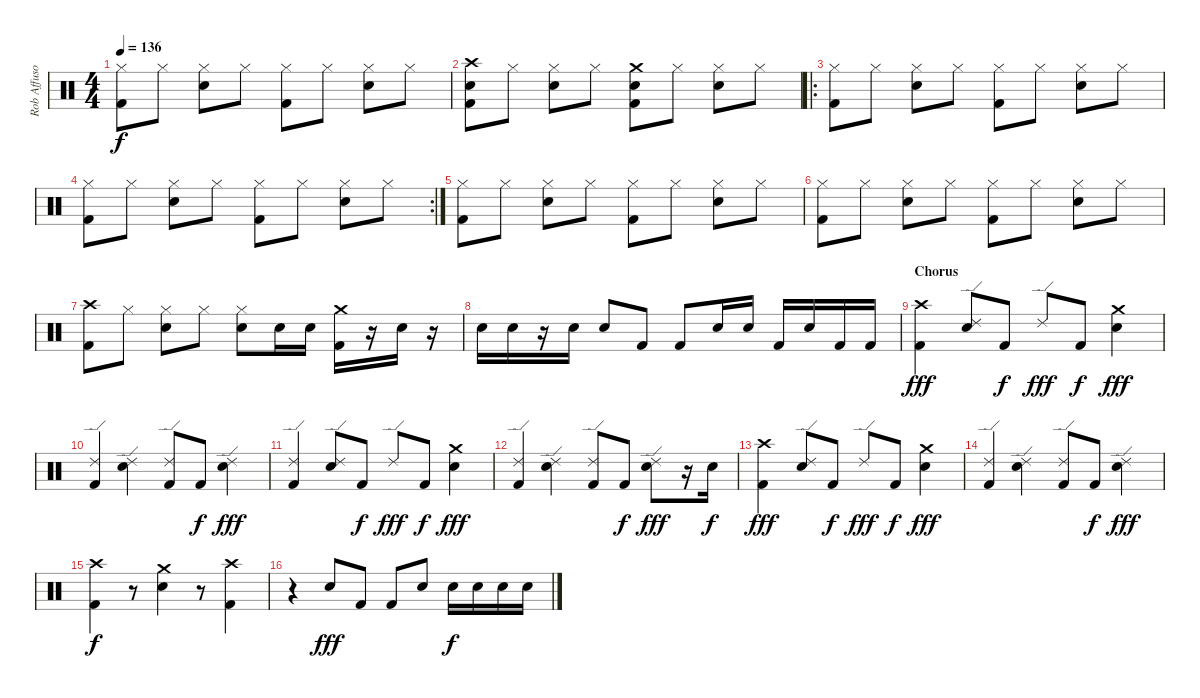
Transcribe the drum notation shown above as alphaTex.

\track ("Rob Affuso" "Rob Affuso") {instrument percussion}
\staff {score}
\articulation defaults
\ts (4 4)
\tempo 136
\clef neutral
\ks c
("Hi-Hat (closed)" "Kick (hit) 2").8{dy f} "Hi-Hat (closed)".8 ("Hi-Hat (closed)" "Snare (hit) 2").8 "Hi-Hat (closed)".8 ("Hi-Hat (closed)" "Kick (hit) 2").8 "Hi-Hat (closed)".8 ("Hi-Hat (closed)" "Snare (hit) 2").8 "Hi-Hat (closed)".8 |
("Crash high (hit)" "Snare (hit) 2" "Kick (hit) 2").8 "Hi-Hat (closed)".8 ("Hi-Hat (closed)" "Snare (hit) 2").8 "Hi-Hat (closed)".8 ("Crash medium (hit)" "Snare (hit) 2" "Kick (hit) 2").8 "Hi-Hat (closed)".8 ("Hi-Hat (closed)" "Snare (hit) 2").8 "Hi-Hat (closed)".8 |
\ro
("Hi-Hat (closed)" "Kick (hit) 2").8 "Hi-Hat (closed)".8 ("Hi-Hat (closed)" "Snare (hit) 2").8 "Hi-Hat (closed)".8 ("Hi-Hat (closed)" "Kick (hit) 2").8 "Hi-Hat (closed)".8 ("Hi-Hat (closed)" "Snare (hit) 2").8 "Hi-Hat (closed)".8 |
\rc 2
("Hi-Hat (closed)" "Kick (hit) 2").8 "Hi-Hat (closed)".8 ("Hi-Hat (closed)" "Snare (hit) 2").8 "Hi-Hat (closed)".8 ("Hi-Hat (closed)" "Kick (hit) 2").8 "Hi-Hat (closed)".8 ("Hi-Hat (closed)" "Snare (hit) 2").8 "Hi-Hat (closed)".8 |
("Hi-Hat (closed)" "Kick (hit) 2").8 "Hi-Hat (closed)".8 ("Hi-Hat (closed)" "Snare (hit) 2").8 "Hi-Hat (closed)".8 ("Hi-Hat (closed)" "Kick (hit) 2").8 "Hi-Hat (closed)".8 ("Hi-Hat (closed)" "Snare (hit) 2").8 "Hi-Hat (closed)".8 |
("Hi-Hat (closed)" "Kick (hit) 2").8 "Hi-Hat (closed)".8 ("Hi-Hat (closed)" "Snare (hit) 2").8 "Hi-Hat (closed)".8 ("Hi-Hat (closed)" "Kick (hit) 2").8 "Hi-Hat (closed)".8 ("Hi-Hat (closed)" "Snare (hit) 2").8 "Hi-Hat (closed)".8 |
("Crash high (hit)" "Kick (hit) 2").8 "Hi-Hat (closed)".8 ("Hi-Hat (closed)" "Snare (hit) 2").8 "Hi-Hat (closed)".8 ("Hi-Hat (closed)" "Snare (hit) 2").8 "Snare (hit) 2".16 "Snare (hit) 2".16 ("Crash medium (hit)" "Kick (hit) 2").16 r.16 "Snare (hit) 2".16 r.16 |
"Snare (hit) 2".16 "Snare (hit) 2".16 r.16 "Snare (hit) 2".16 "Snare (hit) 2".8 "Kick (hit) 2".8 "Kick (hit) 2".8 "Snare (hit) 2".16 "Snare (hit) 2".16 "Kick (hit) 2".16 "Snare (hit) 2".16 "Kick (hit) 2".16 "Kick (hit) 2".16 |
\section ("" "Chorus")
("Crash high (hit)" "Kick (hit) 2").4{dy fff} ("Ride (edge) 2" "Snare (hit) 2").8 "Kick (hit) 2".8{dy f} "Ride (edge) 2".8{dy fff} "Kick (hit) 2".8{dy f} ("Crash medium (hit)" "Snare (hit) 2").4{dy fff} |
("Ride (edge) 2" "Kick (hit) 2").4 ("Ride (edge) 2" "Snare (hit) 2").4 ("Ride (edge) 2" "Kick (hit) 2").8 "Kick (hit) 2".8{dy f} ("Ride (edge) 2" "Snare (hit) 2").4{dy fff} |
("Ride (edge) 2" "Kick (hit) 2").4 ("Ride (edge) 2" "Snare (hit) 2").8 "Kick (hit) 2".8{dy f} "Ride (edge) 2".8{dy fff} "Kick (hit) 2".8{dy f} ("Crash medium (hit)" "Snare (hit) 2").4{dy fff} |
("Ride (edge) 2" "Kick (hit) 2").4 ("Ride (edge) 2" "Snare (hit) 2").4 ("Ride (edge) 2" "Kick (hit) 2").8 "Kick (hit) 2".8{dy f} ("Ride (edge) 2" "Snare (hit) 2").8{dy fff} r.16 "Snare (hit) 2".16{dy f} |
("Crash high (hit)" "Kick (hit) 2").4{dy fff} ("Ride (edge) 2" "Snare (hit) 2").8 "Kick (hit) 2".8{dy f} "Ride (edge) 2".8{dy fff} "Kick (hit) 2".8{dy f} ("Crash medium (hit)" "Snare (hit) 2").4{dy fff} |
("Ride (edge) 2" "Kick (hit) 2").4 ("Ride (edge) 2" "Snare (hit) 2").4 ("Ride (edge) 2" "Kick (hit) 2").8 "Kick (hit) 2".8{dy f} ("Ride (edge) 2" "Snare (hit) 2").4{dy fff} |
("Crash high (hit)" "Kick (hit) 2").4{dy f} r.8 ("Crash medium (hit)" "Snare (hit) 2").4 r.8 ("Crash high (hit)" "Kick (hit) 2").4 |
r.4 "Electric Snare (hit)".8{dy fff} "Kick (hit) 2".8 "Kick (hit) 2".8 "Electric Snare (hit)".8 "Snare (hit) 2".16{dy f} "Snare (hit) 2".16 "Snare (hit) 2".16 "Snare (hit) 2".16
